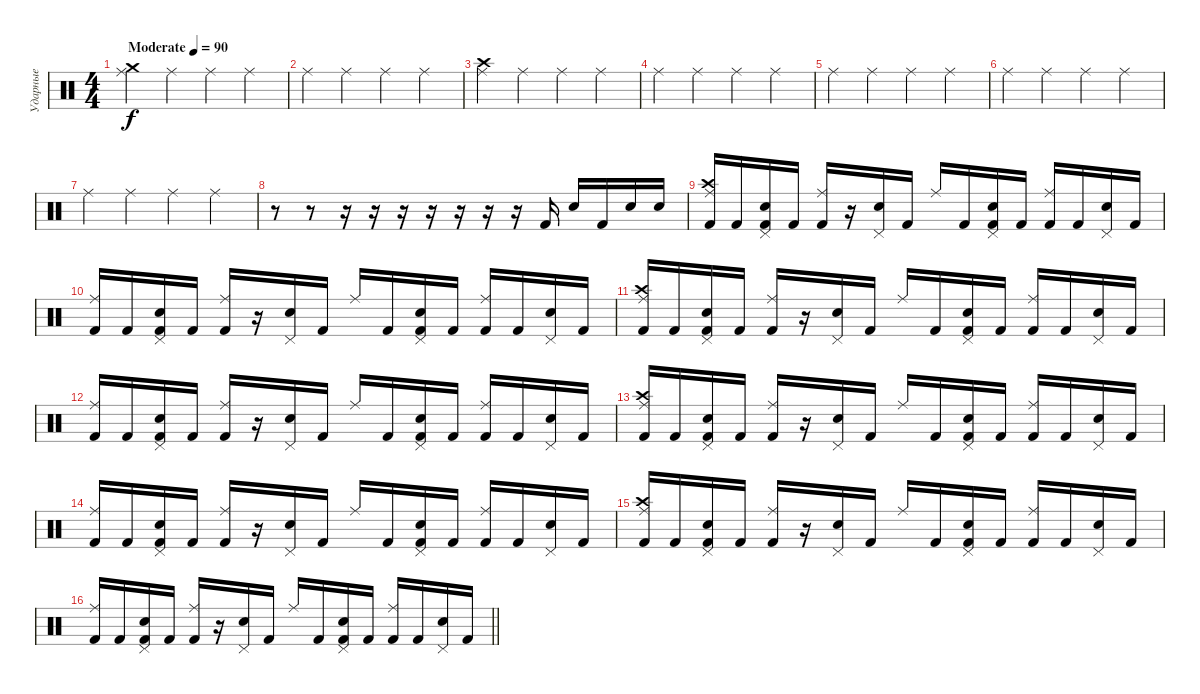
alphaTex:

\track ("Ударные" "Ударные") {instrument percussion}
\staff {score}
\articulation defaults
\ts (4 4)
\tempo (90 "Moderate")
\clef neutral
\ks c
("Ride (middle)" "Crash medium (hit)").4{dy f} "Ride (middle)".4 "Ride (middle)".4 "Ride (middle)".4 |
"Ride (middle)".4 "Ride (middle)".4 "Ride (middle)".4 "Ride (middle)".4 |
("Ride (middle)" "Crash high (hit)").4 "Ride (middle)".4 "Ride (middle)".4 "Ride (middle)".4 |
"Ride (middle)".4 "Ride (middle)".4 "Ride (middle)".4 "Ride (middle)".4 |
"Ride (middle)".4 "Ride (middle)".4 "Ride (middle)".4 "Ride (middle)".4 |
"Ride (middle)".4 "Ride (middle)".4 "Ride (middle)".4 "Ride (middle)".4 |
"Ride (middle)".4 "Ride (middle)".4 "Ride (middle)".4 "Ride (middle)".4 |
r.8 r.8 r.16 r.16 r.16 r.16 r.16 r.16 r.16 "Kick (hit) 2".16 "Snare (hit) 2".16 "Kick (hit) 2".16 "Snare (hit) 2".16 "Snare (hit) 2".16 |
("Kick (hit) 2" "Crash high (hit)" "Ride (middle)").16 "Kick (hit) 2".16 ("Kick (hit) 2" "Snare (hit) 2" "Pedal Hi-Hat (hit)").16 "Kick (hit) 2".16 ("Kick (hit) 2" "Ride (middle)").16 r.16 ("Snare (hit) 2" "Pedal Hi-Hat (hit)").16 "Kick (hit) 2".16 "Ride (middle)".16 "Kick (hit) 2".16 ("Kick (hit) 2" "Snare (hit) 2" "Pedal Hi-Hat (hit)").16 "Kick (hit) 2".16 ("Kick (hit) 2" "Ride (middle)").16 "Kick (hit) 2".16 ("Snare (hit) 2" "Pedal Hi-Hat (hit)").16 "Kick (hit) 2".16 |
("Kick (hit) 2" "Ride (middle)").16 "Kick (hit) 2".16 ("Kick (hit) 2" "Snare (hit) 2" "Pedal Hi-Hat (hit)").16 "Kick (hit) 2".16 ("Kick (hit) 2" "Ride (middle)").16 r.16 ("Snare (hit) 2" "Pedal Hi-Hat (hit)").16 "Kick (hit) 2".16 "Ride (middle)".16 "Kick (hit) 2".16 ("Kick (hit) 2" "Snare (hit) 2" "Pedal Hi-Hat (hit)").16 "Kick (hit) 2".16 ("Kick (hit) 2" "Ride (middle)").16 "Kick (hit) 2".16 ("Snare (hit) 2" "Pedal Hi-Hat (hit)").16 "Kick (hit) 2".16 |
("Kick (hit) 2" "Crash high (hit)" "Ride (middle)").16 "Kick (hit) 2".16 ("Kick (hit) 2" "Snare (hit) 2" "Pedal Hi-Hat (hit)").16 "Kick (hit) 2".16 ("Kick (hit) 2" "Ride (middle)").16 r.16 ("Snare (hit) 2" "Pedal Hi-Hat (hit)").16 "Kick (hit) 2".16 "Ride (middle)".16 "Kick (hit) 2".16 ("Kick (hit) 2" "Snare (hit) 2" "Pedal Hi-Hat (hit)").16 "Kick (hit) 2".16 ("Kick (hit) 2" "Ride (middle)").16 "Kick (hit) 2".16 ("Snare (hit) 2" "Pedal Hi-Hat (hit)").16 "Kick (hit) 2".16 |
("Kick (hit) 2" "Ride (middle)").16 "Kick (hit) 2".16 ("Kick (hit) 2" "Snare (hit) 2" "Pedal Hi-Hat (hit)").16 "Kick (hit) 2".16 ("Kick (hit) 2" "Ride (middle)").16 r.16 ("Snare (hit) 2" "Pedal Hi-Hat (hit)").16 "Kick (hit) 2".16 "Ride (middle)".16 "Kick (hit) 2".16 ("Kick (hit) 2" "Snare (hit) 2" "Pedal Hi-Hat (hit)").16 "Kick (hit) 2".16 ("Kick (hit) 2" "Ride (middle)").16 "Kick (hit) 2".16 ("Snare (hit) 2" "Pedal Hi-Hat (hit)").16 "Kick (hit) 2".16 |
("Kick (hit) 2" "Crash high (hit)" "Ride (middle)").16 "Kick (hit) 2".16 ("Kick (hit) 2" "Snare (hit) 2" "Pedal Hi-Hat (hit)").16 "Kick (hit) 2".16 ("Kick (hit) 2" "Ride (middle)").16 r.16 ("Snare (hit) 2" "Pedal Hi-Hat (hit)").16 "Kick (hit) 2".16 "Ride (middle)".16 "Kick (hit) 2".16 ("Kick (hit) 2" "Snare (hit) 2" "Pedal Hi-Hat (hit)").16 "Kick (hit) 2".16 ("Kick (hit) 2" "Ride (middle)").16 "Kick (hit) 2".16 ("Snare (hit) 2" "Pedal Hi-Hat (hit)").16 "Kick (hit) 2".16 |
("Kick (hit) 2" "Ride (middle)").16 "Kick (hit) 2".16 ("Kick (hit) 2" "Snare (hit) 2" "Pedal Hi-Hat (hit)").16 "Kick (hit) 2".16 ("Kick (hit) 2" "Ride (middle)").16 r.16 ("Snare (hit) 2" "Pedal Hi-Hat (hit)").16 "Kick (hit) 2".16 "Ride (middle)".16 "Kick (hit) 2".16 ("Kick (hit) 2" "Snare (hit) 2" "Pedal Hi-Hat (hit)").16 "Kick (hit) 2".16 ("Kick (hit) 2" "Ride (middle)").16 "Kick (hit) 2".16 ("Snare (hit) 2" "Pedal Hi-Hat (hit)").16 "Kick (hit) 2".16 |
("Kick (hit) 2" "Crash high (hit)" "Ride (middle)").16 "Kick (hit) 2".16 ("Kick (hit) 2" "Snare (hit) 2" "Pedal Hi-Hat (hit)").16 "Kick (hit) 2".16 ("Kick (hit) 2" "Ride (middle)").16 r.16 ("Snare (hit) 2" "Pedal Hi-Hat (hit)").16 "Kick (hit) 2".16 "Ride (middle)".16 "Kick (hit) 2".16 ("Kick (hit) 2" "Snare (hit) 2" "Pedal Hi-Hat (hit)").16 "Kick (hit) 2".16 ("Kick (hit) 2" "Ride (middle)").16 "Kick (hit) 2".16 ("Snare (hit) 2" "Pedal Hi-Hat (hit)").16 "Kick (hit) 2".16 |
\barLineRight lightlight
("Kick (hit) 2" "Ride (middle)").16 "Kick (hit) 2".16 ("Kick (hit) 2" "Snare (hit) 2" "Pedal Hi-Hat (hit)").16 "Kick (hit) 2".16 ("Kick (hit) 2" "Ride (middle)").16 r.16 ("Snare (hit) 2" "Pedal Hi-Hat (hit)").16 "Kick (hit) 2".16 "Ride (middle)".16 "Kick (hit) 2".16 ("Kick (hit) 2" "Snare (hit) 2" "Pedal Hi-Hat (hit)").16 "Kick (hit) 2".16 ("Kick (hit) 2" "Ride (middle)").16 "Kick (hit) 2".16 ("Snare (hit) 2" "Pedal Hi-Hat (hit)").16 "Kick (hit) 2".16
